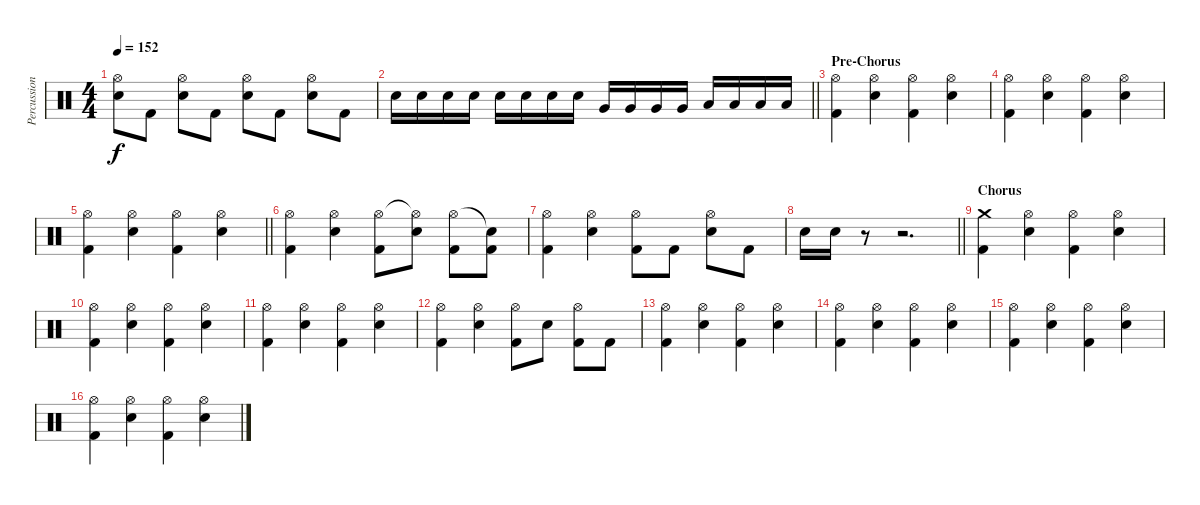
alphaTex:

\track ("Percussion" "Percussion") {instrument percussion}
\staff {score}
\articulation defaults
\ts (4 4)
\tempo 152
\clef neutral
\ks c
("Hi-Hat (open)" "Electric Snare (hit)").8{dy f} "Kick (hit) 2".8 ("Hi-Hat (open)" "Electric Snare (hit)").8 "Kick (hit) 2".8 ("Hi-Hat (open)" "Electric Snare (hit)").8 "Kick (hit) 2".8 ("Hi-Hat (open)" "Electric Snare (hit)").8 "Kick (hit) 2".8 |
\barLineRight lightlight "Electric Snare (hit)".16 "Electric Snare (hit)".16 "Electric Snare (hit)".16 "Electric Snare (hit)".16 "Electric Snare (hit)".16 "Electric Snare (hit)".16 "Electric Snare (hit)".16 "Electric Snare (hit)".16 "Very Low Tom (hit)".16 "Very Low Tom (hit)".16 "Very Low Tom (hit)".16 "Very Low Tom (hit)".16 "Low Floor Tom (hit)".16 "Low Floor Tom (hit)".16 "Low Floor Tom (hit)".16 "Low Floor Tom (hit)".16
|
\section ("" "Pre-Chorus")
("Hi-Hat (open)" "Kick (hit) 2").4 ("Hi-Hat (open)" "Electric Snare (hit)").4 ("Hi-Hat (open)" "Kick (hit) 2").4 ("Hi-Hat (open)" "Electric Snare (hit)").4 |
("Hi-Hat (open)" "Kick (hit) 2").4 ("Hi-Hat (open)" "Electric Snare (hit)").4 ("Hi-Hat (open)" "Kick (hit) 2").4 ("Hi-Hat (open)" "Electric Snare (hit)").4 |
\barLineRight lightlight
("Hi-Hat (open)" "Kick (hit) 2").4 ("Hi-Hat (open)" "Electric Snare (hit)").4 ("Hi-Hat (open)" "Kick (hit) 2").4 ("Hi-Hat (open)" "Electric Snare (hit)").4 |
("Hi-Hat (open)" "Kick (hit) 2").4 ("Hi-Hat (open)" "Electric Snare (hit)").4 ("Hi-Hat (open)" "Kick (hit) 2").8 ("Hi-Hat (open)"{t} "Electric Snare (hit)").8 ("Hi-Hat (open)" "Kick (hit) 2").8 ("Snare (hit)"{t} "Kick (hit) 2").8 |
("Hi-Hat (open)" "Kick (hit) 2").4 ("Hi-Hat (open)" "Electric Snare (hit)").4 ("Hi-Hat (open)" "Kick (hit) 2").8 "Kick (hit) 2".8 ("Hi-Hat (open)" "Electric Snare (hit)").8 "Kick (hit) 2".8 |
\barLineRight lightlight "Electric Snare (hit)".16 "Electric Snare (hit)".16
r.8 r.2{d} |
\section ("" "Chorus")
("Crash medium (hit)" "Kick (hit) 2").4 ("Hi-Hat (open)" "Electric Snare (hit)").4 ("Hi-Hat (open)" "Kick (hit) 2").4 ("Hi-Hat (open)" "Electric Snare (hit)").4 |
("Hi-Hat (open)" "Kick (hit) 2").4 ("Hi-Hat (open)" "Electric Snare (hit)").4 ("Hi-Hat (open)" "Kick (hit) 2").4 ("Hi-Hat (open)" "Electric Snare (hit)").4 |
("Hi-Hat (open)" "Kick (hit) 2").4 ("Hi-Hat (open)" "Electric Snare (hit)").4 ("Hi-Hat (open)" "Kick (hit) 2").4 ("Hi-Hat (open)" "Electric Snare (hit)").4 |
("Hi-Hat (open)" "Kick (hit) 2").4 ("Hi-Hat (open)" "Electric Snare (hit)").4 ("Hi-Hat (open)" "Kick (hit) 2").8 "Electric Snare (hit)".8 ("Hi-Hat (open)" "Kick (hit) 2").8 "Kick (hit) 2".8 |
("Hi-Hat (open)" "Kick (hit) 2").4 ("Hi-Hat (open)" "Electric Snare (hit)").4 ("Hi-Hat (open)" "Kick (hit) 2").4 ("Hi-Hat (open)" "Electric Snare (hit)").4 |
("Hi-Hat (open)" "Kick (hit) 2").4 ("Hi-Hat (open)" "Electric Snare (hit)").4 ("Hi-Hat (open)" "Kick (hit) 2").4 ("Hi-Hat (open)" "Electric Snare (hit)").4 |
("Hi-Hat (open)" "Kick (hit) 2").4 ("Hi-Hat (open)" "Electric Snare (hit)").4 ("Hi-Hat (open)" "Kick (hit) 2").4 ("Hi-Hat (open)" "Electric Snare (hit)").4 |
("Hi-Hat (open)" "Kick (hit) 2").4 ("Hi-Hat (open)" "Electric Snare (hit)").4 ("Hi-Hat (open)" "Kick (hit) 2").4 ("Hi-Hat (open)" "Electric Snare (hit)").4
